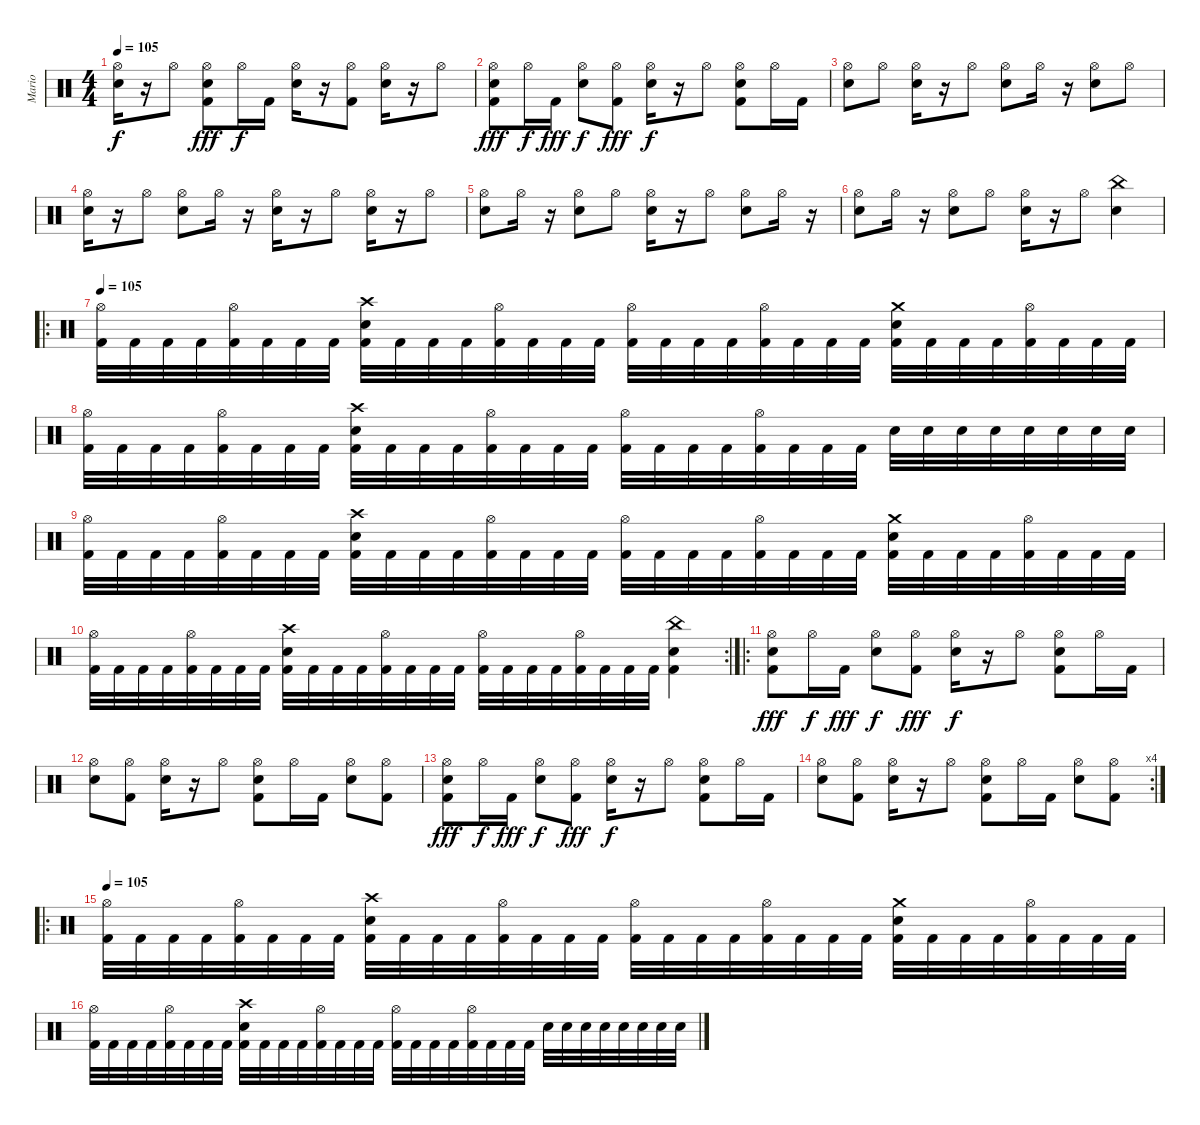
\track ("Mario" "Mario") {instrument percussion}
\staff {score}
\articulation defaults
\ts (4 4)
\tempo 105
\clef neutral
\ks c
("Hi-Hat (open)" "Electric Snare (hit)").16{dy f} r.16 "Hi-Hat (open)".8 ("Hi-Hat (open)" "Electric Snare (hit)" "Kick (hit) 2").8{dy fff} "Hi-Hat (open)".16{dy f} "Kick (hit) 2".16 ("Hi-Hat (open)" "Electric Snare (hit)").16 r.16 ("Hi-Hat (open)" "Kick (hit) 2").8 ("Hi-Hat (open)" "Electric Snare (hit)").16 r.16 "Hi-Hat (open)".8 |
("Hi-Hat (open)" "Electric Snare (hit)" "Kick (hit) 2").8{dy fff} "Hi-Hat (open)".16{dy f} "Kick (hit) 2".16{dy fff} ("Hi-Hat (open)" "Electric Snare (hit)").8{dy f} ("Hi-Hat (open)" "Kick (hit) 2").8{dy fff} ("Hi-Hat (open)" "Electric Snare (hit)").16{dy f} r.16 "Hi-Hat (open)".8 ("Hi-Hat (open)" "Electric Snare (hit)" "Kick (hit) 2").8 "Hi-Hat (open)".16 "Kick (hit) 2".16 |
("Hi-Hat (open)" "Electric Snare (hit)").8 "Hi-Hat (open)".8 ("Hi-Hat (open)" "Electric Snare (hit)").16 r.16 "Hi-Hat (open)".8 ("Hi-Hat (open)" "Electric Snare (hit)").8 "Hi-Hat (open)".16 r.16 ("Hi-Hat (open)" "Electric Snare (hit)").8 "Hi-Hat (open)".8 |
("Hi-Hat (open)" "Electric Snare (hit)").16 r.16 "Hi-Hat (open)".8 ("Hi-Hat (open)" "Electric Snare (hit)").8 "Hi-Hat (open)".16 r.16 ("Hi-Hat (open)" "Electric Snare (hit)").16 r.16 "Hi-Hat (open)".8 ("Hi-Hat (open)" "Electric Snare (hit)").16 r.16 "Hi-Hat (open)".8 |
("Hi-Hat (open)" "Electric Snare (hit)").8 "Hi-Hat (open)".16 r.16 ("Hi-Hat (open)" "Electric Snare (hit)").8 "Hi-Hat (open)".8 ("Hi-Hat (open)" "Electric Snare (hit)").16 r.16 "Hi-Hat (open)".8 ("Hi-Hat (open)" "Electric Snare (hit)").8 "Hi-Hat (open)".16 r.16 |
("Hi-Hat (open)" "Electric Snare (hit)").8 "Hi-Hat (open)".16 r.16 ("Hi-Hat (open)" "Electric Snare (hit)").8 "Hi-Hat (open)".8 ("Hi-Hat (open)" "Electric Snare (hit)").16 r.16 "Hi-Hat (open)".8 ("China (hit)" "Electric Snare (hit)").4 |
\ro
\tempo 105
("Hi-Hat (open)" "Kick (hit) 2").32 "Kick (hit) 2".32 "Kick (hit) 2".32 "Kick (hit) 2".32 ("Hi-Hat (open)" "Kick (hit) 2").32 "Kick (hit) 2".32 "Kick (hit) 2".32 "Kick (hit) 2".32 ("Crash high (hit)" "Electric Snare (hit)" "Kick (hit) 2").32 "Kick (hit) 2".32 "Kick (hit) 2".32 "Kick (hit) 2".32 ("Hi-Hat (open)" "Kick (hit) 2").32 "Kick (hit) 2".32 "Kick (hit) 2".32 "Kick (hit) 2".32 ("Hi-Hat (open)" "Kick (hit) 2").32 "Kick (hit) 2".32 "Kick (hit) 2".32 "Kick (hit) 2".32 ("Hi-Hat (open)" "Kick (hit) 2").32 "Kick (hit) 2".32 "Kick (hit) 2".32 "Kick (hit) 2".32 ("Crash medium (hit)" "Electric Snare (hit)" "Kick (hit) 2").32 "Kick (hit) 2".32 "Kick (hit) 2".32 "Kick (hit) 2".32 ("Hi-Hat (open)" "Kick (hit) 2").32 "Kick (hit) 2".32 "Kick (hit) 2".32 "Kick (hit) 2".32 |
("Hi-Hat (open)" "Kick (hit) 2").32 "Kick (hit) 2".32 "Kick (hit) 2".32 "Kick (hit) 2".32 ("Hi-Hat (open)" "Kick (hit) 2").32 "Kick (hit) 2".32 "Kick (hit) 2".32 "Kick (hit) 2".32 ("Crash high (hit)" "Electric Snare (hit)" "Kick (hit) 2").32 "Kick (hit) 2".32 "Kick (hit) 2".32 "Kick (hit) 2".32 ("Hi-Hat (open)" "Kick (hit) 2").32 "Kick (hit) 2".32 "Kick (hit) 2".32 "Kick (hit) 2".32 ("Hi-Hat (open)" "Kick (hit) 2").32 "Kick (hit) 2".32 "Kick (hit) 2".32 "Kick (hit) 2".32 ("Hi-Hat (open)" "Kick (hit) 2").32 "Kick (hit) 2".32 "Kick (hit) 2".32 "Kick (hit) 2".32 "Electric Snare (hit)".32 "Electric Snare (hit)".32 "Electric Snare (hit)".32 "Electric Snare (hit)".32 "Electric Snare (hit)".32 "Electric Snare (hit)".32 "Electric Snare (hit)".32 "Electric Snare (hit)".32 |
("Hi-Hat (open)" "Kick (hit) 2").32 "Kick (hit) 2".32 "Kick (hit) 2".32 "Kick (hit) 2".32 ("Hi-Hat (open)" "Kick (hit) 2").32 "Kick (hit) 2".32 "Kick (hit) 2".32 "Kick (hit) 2".32 ("Crash high (hit)" "Electric Snare (hit)" "Kick (hit) 2").32 "Kick (hit) 2".32 "Kick (hit) 2".32 "Kick (hit) 2".32 ("Hi-Hat (open)" "Kick (hit) 2").32 "Kick (hit) 2".32 "Kick (hit) 2".32 "Kick (hit) 2".32 ("Hi-Hat (open)" "Kick (hit) 2").32 "Kick (hit) 2".32 "Kick (hit) 2".32 "Kick (hit) 2".32 ("Hi-Hat (open)" "Kick (hit) 2").32 "Kick (hit) 2".32 "Kick (hit) 2".32 "Kick (hit) 2".32 ("Crash medium (hit)" "Electric Snare (hit)" "Kick (hit) 2").32 "Kick (hit) 2".32 "Kick (hit) 2".32 "Kick (hit) 2".32 ("Hi-Hat (open)" "Kick (hit) 2").32 "Kick (hit) 2".32 "Kick (hit) 2".32 "Kick (hit) 2".32 |
\rc 2
("Hi-Hat (open)" "Kick (hit) 2").32 "Kick (hit) 2".32 "Kick (hit) 2".32 "Kick (hit) 2".32 ("Hi-Hat (open)" "Kick (hit) 2").32 "Kick (hit) 2".32 "Kick (hit) 2".32 "Kick (hit) 2".32 ("Crash high (hit)" "Electric Snare (hit)" "Kick (hit) 2").32 "Kick (hit) 2".32 "Kick (hit) 2".32 "Kick (hit) 2".32 ("Hi-Hat (open)" "Kick (hit) 2").32 "Kick (hit) 2".32 "Kick (hit) 2".32 "Kick (hit) 2".32 ("Hi-Hat (open)" "Kick (hit) 2").32 "Kick (hit) 2".32 "Kick (hit) 2".32 "Kick (hit) 2".32 ("Hi-Hat (open)" "Kick (hit) 2").32 "Kick (hit) 2".32 "Kick (hit) 2".32 "Kick (hit) 2".32 ("China (hit)" "Electric Snare (hit)" "Kick (hit) 2").4 |
\ro
("Hi-Hat (open)" "Electric Snare (hit)" "Kick (hit) 2").8{dy fff} "Hi-Hat (open)".16{dy f} "Kick (hit) 2".16{dy fff} ("Hi-Hat (open)" "Electric Snare (hit)").8{dy f} ("Hi-Hat (open)" "Kick (hit) 2").8{dy fff} ("Hi-Hat (open)" "Electric Snare (hit)").16{dy f} r.16 "Hi-Hat (open)".8 ("Hi-Hat (open)" "Electric Snare (hit)" "Kick (hit) 2").8 "Hi-Hat (open)".16 "Kick (hit) 2".16 |
("Hi-Hat (open)" "Electric Snare (hit)").8 ("Hi-Hat (open)" "Kick (hit) 2").8 ("Hi-Hat (open)" "Electric Snare (hit)").16 r.16 "Hi-Hat (open)".8 ("Hi-Hat (open)" "Electric Snare (hit)" "Kick (hit) 2").8 "Hi-Hat (open)".16 "Kick (hit) 2".16 ("Hi-Hat (open)" "Electric Snare (hit)").8 ("Hi-Hat (open)" "Kick (hit) 2").8 |
("Hi-Hat (open)" "Electric Snare (hit)" "Kick (hit) 2").8{dy fff} "Hi-Hat (open)".16{dy f} "Kick (hit) 2".16{dy fff} ("Hi-Hat (open)" "Electric Snare (hit)").8{dy f} ("Hi-Hat (open)" "Kick (hit) 2").8{dy fff} ("Hi-Hat (open)" "Electric Snare (hit)").16{dy f} r.16 "Hi-Hat (open)".8 ("Hi-Hat (open)" "Electric Snare (hit)" "Kick (hit) 2").8 "Hi-Hat (open)".16 "Kick (hit) 2".16 |
\rc 4
("Hi-Hat (open)" "Electric Snare (hit)").8 ("Hi-Hat (open)" "Kick (hit) 2").8 ("Hi-Hat (open)" "Electric Snare (hit)").16 r.16 "Hi-Hat (open)".8 ("Hi-Hat (open)" "Electric Snare (hit)" "Kick (hit) 2").8 "Hi-Hat (open)".16 "Kick (hit) 2".16 ("Hi-Hat (open)" "Electric Snare (hit)").8 ("Hi-Hat (open)" "Kick (hit) 2").8 |
\ro
\tempo 105
("Hi-Hat (open)" "Kick (hit) 2").32 "Kick (hit) 2".32 "Kick (hit) 2".32 "Kick (hit) 2".32 ("Hi-Hat (open)" "Kick (hit) 2").32 "Kick (hit) 2".32 "Kick (hit) 2".32 "Kick (hit) 2".32 ("Crash high (hit)" "Electric Snare (hit)" "Kick (hit) 2").32 "Kick (hit) 2".32 "Kick (hit) 2".32 "Kick (hit) 2".32 ("Hi-Hat (open)" "Kick (hit) 2").32 "Kick (hit) 2".32 "Kick (hit) 2".32 "Kick (hit) 2".32 ("Hi-Hat (open)" "Kick (hit) 2").32 "Kick (hit) 2".32 "Kick (hit) 2".32 "Kick (hit) 2".32 ("Hi-Hat (open)" "Kick (hit) 2").32 "Kick (hit) 2".32 "Kick (hit) 2".32 "Kick (hit) 2".32 ("Crash medium (hit)" "Electric Snare (hit)" "Kick (hit) 2").32 "Kick (hit) 2".32 "Kick (hit) 2".32 "Kick (hit) 2".32 ("Hi-Hat (open)" "Kick (hit) 2").32 "Kick (hit) 2".32 "Kick (hit) 2".32 "Kick (hit) 2".32 |
("Hi-Hat (open)" "Kick (hit) 2").32 "Kick (hit) 2".32 "Kick (hit) 2".32 "Kick (hit) 2".32 ("Hi-Hat (open)" "Kick (hit) 2").32 "Kick (hit) 2".32 "Kick (hit) 2".32 "Kick (hit) 2".32 ("Crash high (hit)" "Electric Snare (hit)" "Kick (hit) 2").32 "Kick (hit) 2".32 "Kick (hit) 2".32 "Kick (hit) 2".32 ("Hi-Hat (open)" "Kick (hit) 2").32 "Kick (hit) 2".32 "Kick (hit) 2".32 "Kick (hit) 2".32 ("Hi-Hat (open)" "Kick (hit) 2").32 "Kick (hit) 2".32 "Kick (hit) 2".32 "Kick (hit) 2".32 ("Hi-Hat (open)" "Kick (hit) 2").32 "Kick (hit) 2".32 "Kick (hit) 2".32 "Kick (hit) 2".32 "Electric Snare (hit)".32 "Electric Snare (hit)".32 "Electric Snare (hit)".32 "Electric Snare (hit)".32 "Electric Snare (hit)".32 "Electric Snare (hit)".32 "Electric Snare (hit)".32 "Electric Snare (hit)".32
